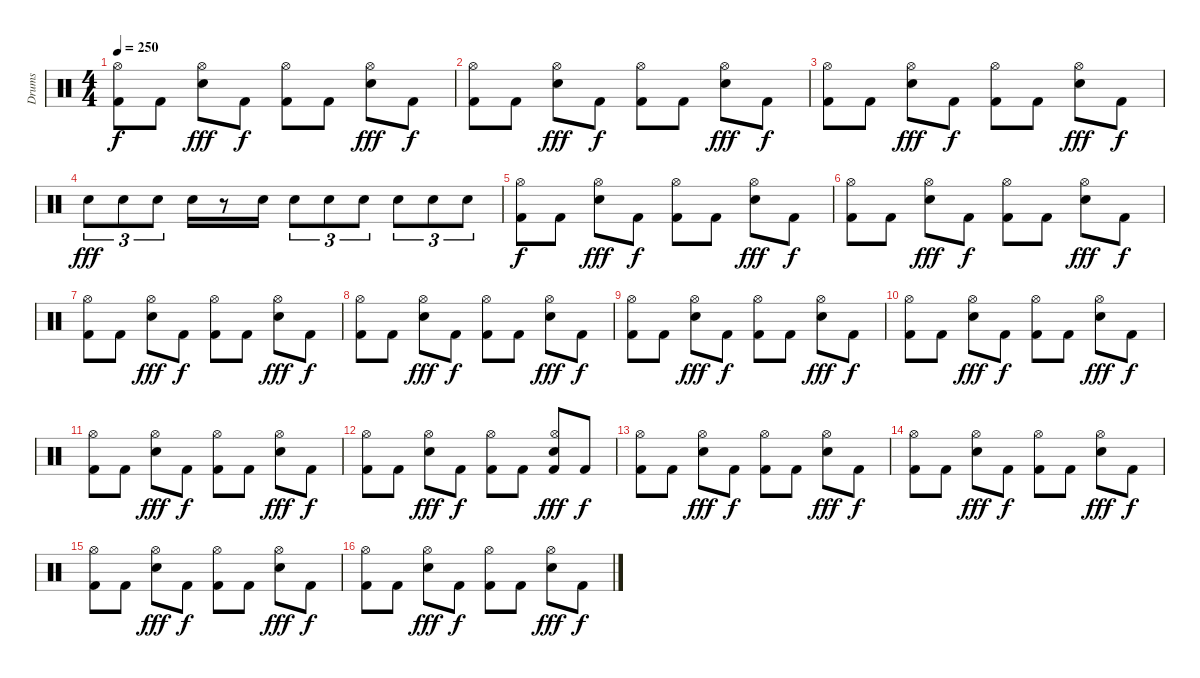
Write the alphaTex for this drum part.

\track ("Drums" "Drums") {instrument percussion}
\staff {score}
\articulation defaults
\ts (4 4)
\tempo 250
\clef neutral
\ks c
("Kick (hit) 2" "Hi-Hat (open)").8{dy f} "Kick (hit) 2".8 ("Hi-Hat (open)" "Snare (hit) 2").8{dy fff} "Kick (hit) 2".8{dy f} ("Hi-Hat (open)" "Kick (hit) 2").8 "Kick (hit) 2".8 ("Hi-Hat (open)" "Snare (hit) 2").8{dy fff} "Kick (hit) 2".8{dy f} |
("Kick (hit) 2" "Hi-Hat (open)").8 "Kick (hit) 2".8 ("Hi-Hat (open)" "Snare (hit) 2").8{dy fff} "Kick (hit) 2".8{dy f} ("Hi-Hat (open)" "Kick (hit) 2").8 "Kick (hit) 2".8 ("Hi-Hat (open)" "Snare (hit) 2").8{dy fff} "Kick (hit) 2".8{dy f} |
("Kick (hit) 2" "Hi-Hat (open)").8 "Kick (hit) 2".8 ("Hi-Hat (open)" "Snare (hit) 2").8{dy fff} "Kick (hit) 2".8{dy f} ("Hi-Hat (open)" "Kick (hit) 2").8 "Kick (hit) 2".8 ("Hi-Hat (open)" "Snare (hit) 2").8{dy fff} "Kick (hit) 2".8{dy f} |
"Snare (hit) 2".8{tu (3 2) dy fff} "Snare (hit) 2".8{tu (3 2)} "Snare (hit) 2".8{tu (3 2)} "Snare (hit) 2".16 r.8 "Snare (hit) 2".16 "Snare (hit) 2".8{tu (3 2)} "Snare (hit) 2".8{tu (3 2)} "Snare (hit) 2".8{tu (3 2)} "Snare (hit) 2".8{tu (3 2)} "Snare (hit) 2".8{tu (3 2)} "Snare (hit) 2".8{tu (3 2)} |
("Hi-Hat (open)" "Kick (hit) 2").8{dy f} "Kick (hit) 2".8 ("Hi-Hat (open)" "Snare (hit) 2").8{dy fff} "Kick (hit) 2".8{dy f} ("Hi-Hat (open)" "Kick (hit) 2").8 "Kick (hit) 2".8 ("Hi-Hat (open)" "Snare (hit) 2").8{dy fff} "Kick (hit) 2".8{dy f} |
("Kick (hit) 2" "Hi-Hat (open)").8 "Kick (hit) 2".8 ("Hi-Hat (open)" "Snare (hit) 2").8{dy fff} "Kick (hit) 2".8{dy f} ("Hi-Hat (open)" "Kick (hit) 2").8 "Kick (hit) 2".8 ("Hi-Hat (open)" "Snare (hit) 2").8{dy fff} "Kick (hit) 2".8{dy f} |
("Kick (hit) 2" "Hi-Hat (open)").8 "Kick (hit) 2".8 ("Hi-Hat (open)" "Snare (hit) 2").8{dy fff} "Kick (hit) 2".8{dy f} ("Hi-Hat (open)" "Kick (hit) 2").8 "Kick (hit) 2".8 ("Hi-Hat (open)" "Snare (hit) 2").8{dy fff} "Kick (hit) 2".8{dy f} |
("Kick (hit) 2" "Hi-Hat (open)").8 "Kick (hit) 2".8 ("Hi-Hat (open)" "Snare (hit) 2").8{dy fff} "Kick (hit) 2".8{dy f} ("Hi-Hat (open)" "Kick (hit) 2").8 "Kick (hit) 2".8 ("Hi-Hat (open)" "Snare (hit) 2").8{dy fff} "Kick (hit) 2".8{dy f} |
("Kick (hit) 2" "Hi-Hat (open)").8 "Kick (hit) 2".8 ("Hi-Hat (open)" "Snare (hit) 2").8{dy fff} "Kick (hit) 2".8{dy f} ("Hi-Hat (open)" "Kick (hit) 2").8 "Kick (hit) 2".8 ("Hi-Hat (open)" "Snare (hit) 2").8{dy fff} "Kick (hit) 2".8{dy f} |
("Kick (hit) 2" "Hi-Hat (open)").8 "Kick (hit) 2".8 ("Hi-Hat (open)" "Snare (hit) 2").8{dy fff} "Kick (hit) 2".8{dy f} ("Hi-Hat (open)" "Kick (hit) 2").8 "Kick (hit) 2".8 ("Hi-Hat (open)" "Snare (hit) 2").8{dy fff} "Kick (hit) 2".8{dy f} |
("Kick (hit) 2" "Hi-Hat (open)").8 "Kick (hit) 2".8 ("Hi-Hat (open)" "Snare (hit) 2").8{dy fff} "Kick (hit) 2".8{dy f} ("Hi-Hat (open)" "Kick (hit) 2").8 "Kick (hit) 2".8 ("Hi-Hat (open)" "Snare (hit) 2").8{dy fff} "Kick (hit) 2".8{dy f} |
("Hi-Hat (open)" "Kick (hit) 2").8 "Kick (hit) 2".8 ("Hi-Hat (open)" "Snare (hit) 2").8{dy fff} "Kick (hit) 2".8{dy f} ("Hi-Hat (open)" "Kick (hit) 2").8 "Kick (hit) 2".8 ("Hi-Hat (open)" "Kick (hit) 2" "Snare (hit) 2").8{dy fff} "Kick (hit) 2".8{dy f} |
("Kick (hit) 2" "Hi-Hat (open)").8 "Kick (hit) 2".8 ("Hi-Hat (open)" "Snare (hit) 2").8{dy fff} "Kick (hit) 2".8{dy f} ("Hi-Hat (open)" "Kick (hit) 2").8 "Kick (hit) 2".8 ("Hi-Hat (open)" "Snare (hit) 2").8{dy fff} "Kick (hit) 2".8{dy f} |
("Kick (hit) 2" "Hi-Hat (open)").8 "Kick (hit) 2".8 ("Hi-Hat (open)" "Snare (hit) 2").8{dy fff} "Kick (hit) 2".8{dy f} ("Hi-Hat (open)" "Kick (hit) 2").8 "Kick (hit) 2".8 ("Hi-Hat (open)" "Snare (hit) 2").8{dy fff} "Kick (hit) 2".8{dy f} |
("Kick (hit) 2" "Hi-Hat (open)").8 "Kick (hit) 2".8 ("Hi-Hat (open)" "Snare (hit) 2").8{dy fff} "Kick (hit) 2".8{dy f} ("Hi-Hat (open)" "Kick (hit) 2").8 "Kick (hit) 2".8 ("Hi-Hat (open)" "Snare (hit) 2").8{dy fff} "Kick (hit) 2".8{dy f} |
("Kick (hit) 2" "Hi-Hat (open)").8 "Kick (hit) 2".8 ("Hi-Hat (open)" "Snare (hit) 2").8{dy fff} "Kick (hit) 2".8{dy f} ("Hi-Hat (open)" "Kick (hit) 2").8 "Kick (hit) 2".8 ("Hi-Hat (open)" "Snare (hit) 2").8{dy fff} "Kick (hit) 2".8{dy f}
